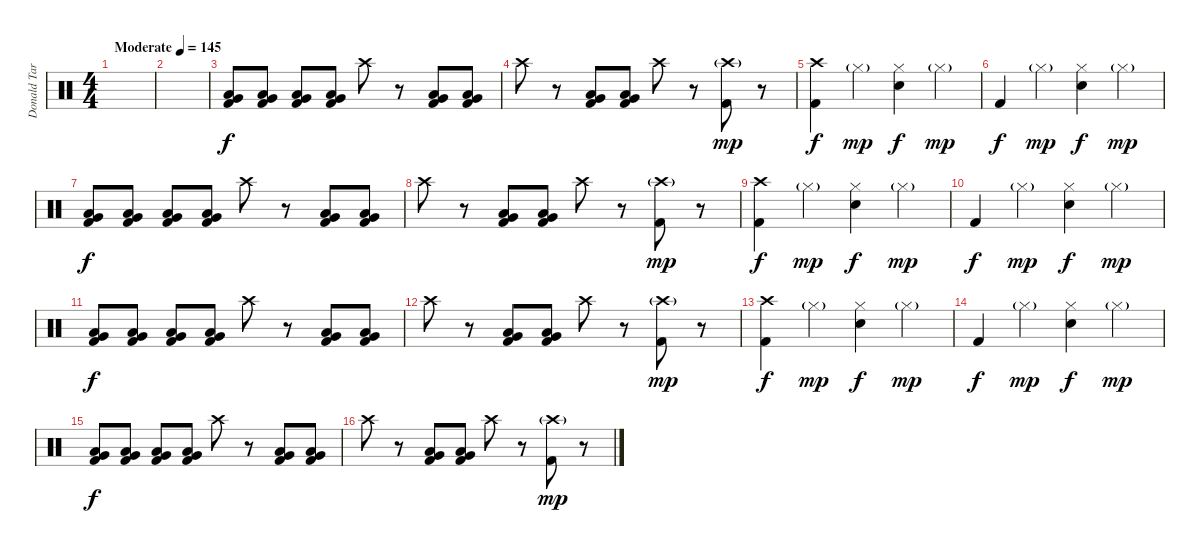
\track ("Donald Tardy" "Donald Tar") {instrument percussion}
\staff {score}
\articulation defaults
\ts (4 4)
\tempo (145 "Moderate")
\clef neutral
\ks c
|
|
("Very Low Tom (hit)" "Low Floor Tom (hit)" "Kick (hit) 2").8 ("Very Low Tom (hit)" "Low Floor Tom (hit)" "Kick (hit) 2").8 ("Very Low Tom (hit)" "Low Floor Tom (hit)" "Kick (hit) 2").8 ("Very Low Tom (hit)" "Low Floor Tom (hit)" "Kick (hit) 2").8 "Crash high (hit)".8 r.8 ("Very Low Tom (hit)" "Low Floor Tom (hit)" "Kick (hit) 2").8 ("Very Low Tom (hit)" "Low Floor Tom (hit)" "Kick (hit) 2").8 |
"Crash high (hit)".8 r.8 ("Very Low Tom (hit)" "Low Floor Tom (hit)" "Kick (hit) 2").8 ("Very Low Tom (hit)" "Low Floor Tom (hit)" "Kick (hit) 2").8 "Crash high (hit)".8 r.8 ("Crash high (hit)"{g} "Kick (hit) 2").8{dy mp} r.8 |
("Crash high (hit)" "Kick (hit) 2").4{dy f} "Hi-Hat (closed)"{g}.4{dy mp} ("Hi-Hat (closed)" "Electric Snare (hit)").4{dy f} "Hi-Hat (closed)"{g}.4{dy mp} |
"Kick (hit) 2".4{dy f} "Hi-Hat (closed)"{g}.4{dy mp} ("Hi-Hat (closed)" "Electric Snare (hit)").4{dy f} "Hi-Hat (closed)"{g}.4{dy mp} |
("Very Low Tom (hit)" "Low Floor Tom (hit)" "Kick (hit) 2").8{dy f} ("Very Low Tom (hit)" "Low Floor Tom (hit)" "Kick (hit) 2").8 ("Very Low Tom (hit)" "Low Floor Tom (hit)" "Kick (hit) 2").8 ("Very Low Tom (hit)" "Low Floor Tom (hit)" "Kick (hit) 2").8 "Crash high (hit)".8 r.8 ("Very Low Tom (hit)" "Low Floor Tom (hit)" "Kick (hit) 2").8 ("Very Low Tom (hit)" "Low Floor Tom (hit)" "Kick (hit) 2").8 |
"Crash high (hit)".8 r.8 ("Very Low Tom (hit)" "Low Floor Tom (hit)" "Kick (hit) 2").8 ("Very Low Tom (hit)" "Low Floor Tom (hit)" "Kick (hit) 2").8 "Crash high (hit)".8 r.8 ("Crash high (hit)"{g} "Kick (hit) 2").8{dy mp} r.8 |
("Crash high (hit)" "Kick (hit) 2").4{dy f} "Hi-Hat (closed)"{g}.4{dy mp} ("Hi-Hat (closed)" "Electric Snare (hit)").4{dy f} "Hi-Hat (closed)"{g}.4{dy mp} |
"Kick (hit) 2".4{dy f} "Hi-Hat (closed)"{g}.4{dy mp} ("Hi-Hat (closed)" "Electric Snare (hit)").4{dy f} "Hi-Hat (closed)"{g}.4{dy mp} |
("Very Low Tom (hit)" "Low Floor Tom (hit)" "Kick (hit) 2").8{dy f} ("Very Low Tom (hit)" "Low Floor Tom (hit)" "Kick (hit) 2").8 ("Very Low Tom (hit)" "Low Floor Tom (hit)" "Kick (hit) 2").8 ("Very Low Tom (hit)" "Low Floor Tom (hit)" "Kick (hit) 2").8 "Crash high (hit)".8 r.8 ("Very Low Tom (hit)" "Low Floor Tom (hit)" "Kick (hit) 2").8 ("Very Low Tom (hit)" "Low Floor Tom (hit)" "Kick (hit) 2").8 |
"Crash high (hit)".8 r.8 ("Very Low Tom (hit)" "Low Floor Tom (hit)" "Kick (hit) 2").8 ("Very Low Tom (hit)" "Low Floor Tom (hit)" "Kick (hit) 2").8 "Crash high (hit)".8 r.8 ("Crash high (hit)"{g} "Kick (hit) 2").8{dy mp} r.8 |
("Crash high (hit)" "Kick (hit) 2").4{dy f} "Hi-Hat (closed)"{g}.4{dy mp} ("Hi-Hat (closed)" "Electric Snare (hit)").4{dy f} "Hi-Hat (closed)"{g}.4{dy mp} |
"Kick (hit) 2".4{dy f} "Hi-Hat (closed)"{g}.4{dy mp} ("Hi-Hat (closed)" "Electric Snare (hit)").4{dy f} "Hi-Hat (closed)"{g}.4{dy mp} |
("Very Low Tom (hit)" "Low Floor Tom (hit)" "Kick (hit) 2").8{dy f} ("Very Low Tom (hit)" "Low Floor Tom (hit)" "Kick (hit) 2").8 ("Very Low Tom (hit)" "Low Floor Tom (hit)" "Kick (hit) 2").8 ("Very Low Tom (hit)" "Low Floor Tom (hit)" "Kick (hit) 2").8 "Crash high (hit)".8 r.8 ("Very Low Tom (hit)" "Low Floor Tom (hit)" "Kick (hit) 2").8 ("Very Low Tom (hit)" "Low Floor Tom (hit)" "Kick (hit) 2").8 |
"Crash high (hit)".8 r.8 ("Very Low Tom (hit)" "Low Floor Tom (hit)" "Kick (hit) 2").8 ("Very Low Tom (hit)" "Low Floor Tom (hit)" "Kick (hit) 2").8 "Crash high (hit)".8 r.8 ("Crash high (hit)"{g} "Kick (hit) 2").8{dy mp} r.8
